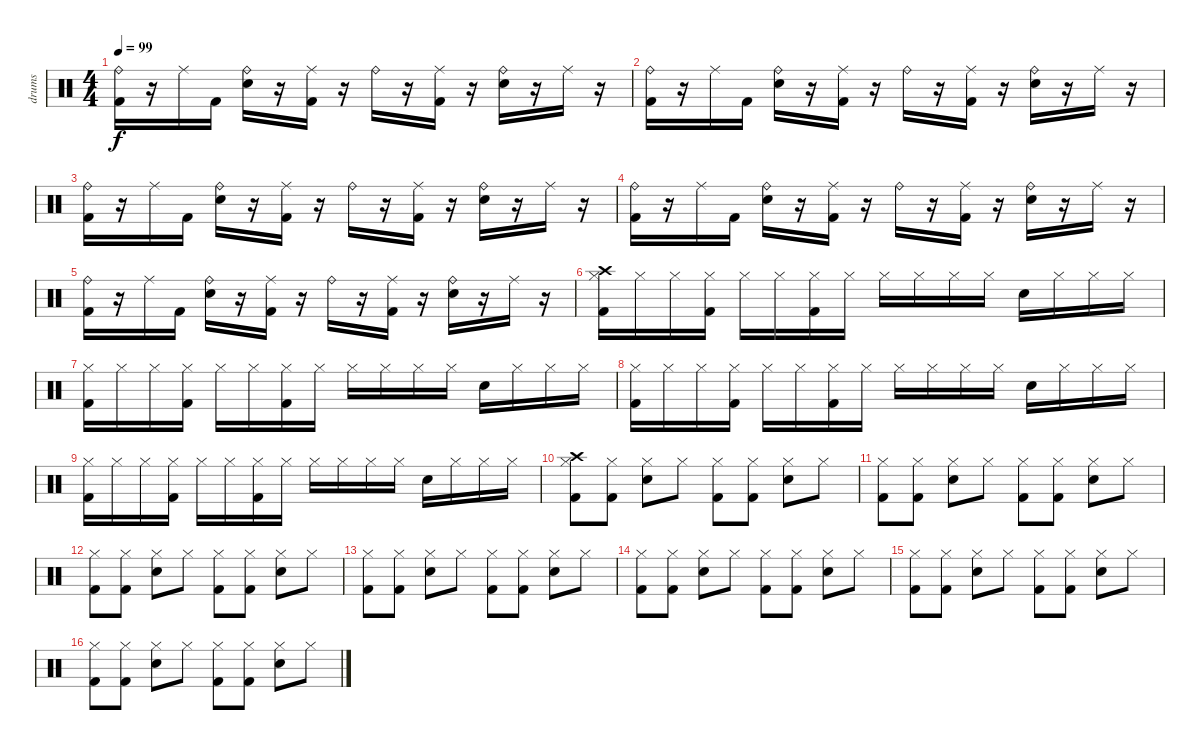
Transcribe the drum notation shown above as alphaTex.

\track ("drums" "drums") {instrument percussion}
\staff {score}
\articulation defaults
\ts (4 4)
\tempo 99
\clef neutral
\ks c
("Ride (bell)" "Kick (hit) 2").16{dy f} r.16 "Ride (middle)".16 "Kick (hit) 2".16 ("Ride (bell)" "Snare (hit) 2").16 r.16 ("Ride (middle)" "Kick (hit) 2").16 r.16 "Ride (bell)"{nh}.16 r.16 ("Ride (middle)" "Kick (hit) 2").16 r.16 ("Ride (bell)" "Snare (hit) 2").16 r.16 "Ride (middle)".16 r.16 |
("Ride (bell)" "Kick (hit) 2").16 r.16 "Ride (middle)".16 "Kick (hit) 2".16 ("Ride (bell)" "Snare (hit) 2").16 r.16 ("Ride (middle)" "Kick (hit) 2").16 r.16 "Ride (bell)"{nh}.16 r.16 ("Ride (middle)" "Kick (hit) 2").16 r.16 ("Ride (bell)" "Snare (hit) 2").16 r.16 "Ride (middle)".16 r.16 |
("Ride (bell)" "Kick (hit) 2").16 r.16 "Ride (middle)".16 "Kick (hit) 2".16 ("Ride (bell)" "Snare (hit) 2").16 r.16 ("Ride (middle)" "Kick (hit) 2").16 r.16 "Ride (bell)"{nh}.16 r.16 ("Ride (middle)" "Kick (hit) 2").16 r.16 ("Ride (bell)" "Snare (hit) 2").16 r.16 "Ride (middle)".16 r.16 |
("Ride (bell)" "Kick (hit) 2").16 r.16 "Ride (middle)".16 "Kick (hit) 2".16 ("Ride (bell)" "Snare (hit) 2").16 r.16 ("Ride (middle)" "Kick (hit) 2").16 r.16 "Ride (bell)"{nh}.16 r.16 ("Ride (middle)" "Kick (hit) 2").16 r.16 ("Ride (bell)" "Snare (hit) 2").16 r.16 "Ride (middle)".16 r.16 |
("Ride (bell)" "Kick (hit) 2").16 r.16 "Ride (middle)".16 "Kick (hit) 2".16 ("Ride (bell)" "Snare (hit) 2").16 r.16 ("Ride (middle)" "Kick (hit) 2").16 r.16 "Ride (bell)"{nh}.16 r.16 ("Ride (middle)" "Kick (hit) 2").16 r.16 ("Ride (bell)" "Snare (hit) 2").16 r.16 "Ride (middle)".16 r.16 |
("Crash high (hit)" "Hi-Hat (closed)" "Kick (hit) 2").16 "Hi-Hat (closed)".16 "Hi-Hat (closed)".16 ("Hi-Hat (closed)" "Kick (hit) 2").16 "Hi-Hat (closed)".16 "Hi-Hat (closed)".16 ("Hi-Hat (closed)" "Kick (hit) 2").16 "Hi-Hat (closed)".16 "Hi-Hat (closed)"{nh}.16 "Hi-Hat (closed)".16 "Hi-Hat (closed)".16 "Hi-Hat (closed)".16 "Snare (hit) 2".16 "Hi-Hat (closed)".16 "Hi-Hat (closed)".16 "Hi-Hat (closed)".16 |
("Hi-Hat (closed)" "Kick (hit) 2").16 "Hi-Hat (closed)".16 "Hi-Hat (closed)".16 ("Hi-Hat (closed)" "Kick (hit) 2").16 "Hi-Hat (closed)".16 "Hi-Hat (closed)".16 ("Hi-Hat (closed)" "Kick (hit) 2").16 "Hi-Hat (closed)".16 "Hi-Hat (closed)"{nh}.16 "Hi-Hat (closed)".16 "Hi-Hat (closed)".16 "Hi-Hat (closed)".16 "Snare (hit) 2".16 "Hi-Hat (closed)".16 "Hi-Hat (closed)".16 "Hi-Hat (closed)".16 |
("Hi-Hat (closed)" "Kick (hit) 2").16 "Hi-Hat (closed)".16 "Hi-Hat (closed)".16 ("Hi-Hat (closed)" "Kick (hit) 2").16 "Hi-Hat (closed)".16 "Hi-Hat (closed)".16 ("Hi-Hat (closed)" "Kick (hit) 2").16 "Hi-Hat (closed)".16 "Hi-Hat (closed)"{nh}.16 "Hi-Hat (closed)".16 "Hi-Hat (closed)".16 "Hi-Hat (closed)".16 "Snare (hit) 2".16 "Hi-Hat (closed)".16 "Hi-Hat (closed)".16 "Hi-Hat (closed)".16 |
("Hi-Hat (closed)" "Kick (hit) 2").16 "Hi-Hat (closed)".16 "Hi-Hat (closed)".16 ("Hi-Hat (closed)" "Kick (hit) 2").16 "Hi-Hat (closed)".16 "Hi-Hat (closed)".16 ("Hi-Hat (closed)" "Kick (hit) 2").16 "Hi-Hat (closed)".16 "Hi-Hat (closed)"{nh}.16 "Hi-Hat (closed)".16 "Hi-Hat (closed)".16 "Hi-Hat (closed)".16 "Snare (hit) 2".16 "Hi-Hat (closed)".16 "Hi-Hat (closed)".16 "Hi-Hat (closed)".16 |
("Crash high (hit)" "Hi-Hat (closed)" "Kick (hit) 2").8 ("Hi-Hat (closed)" "Kick (hit) 2").8 ("Hi-Hat (closed)" "Snare (hit) 2").8 "Hi-Hat (closed)".8 ("Hi-Hat (closed)" "Kick (hit) 2").8 ("Hi-Hat (closed)" "Kick (hit) 2").8 ("Hi-Hat (closed)" "Snare (hit) 2").8 "Hi-Hat (closed)".8 |
("Hi-Hat (closed)" "Kick (hit) 2").8 ("Hi-Hat (closed)" "Kick (hit) 2").8 ("Hi-Hat (closed)" "Snare (hit) 2").8 "Hi-Hat (closed)".8 ("Hi-Hat (closed)" "Kick (hit) 2").8 ("Hi-Hat (closed)" "Kick (hit) 2").8 ("Hi-Hat (closed)" "Snare (hit) 2").8 "Hi-Hat (closed)".8 |
("Hi-Hat (closed)" "Kick (hit) 2").8 ("Hi-Hat (closed)" "Kick (hit) 2").8 ("Hi-Hat (closed)" "Snare (hit) 2").8 "Hi-Hat (closed)".8 ("Hi-Hat (closed)" "Kick (hit) 2").8 ("Hi-Hat (closed)" "Kick (hit) 2").8 ("Hi-Hat (closed)" "Snare (hit) 2").8 "Hi-Hat (closed)".8 |
("Hi-Hat (closed)" "Kick (hit) 2").8 ("Hi-Hat (closed)" "Kick (hit) 2").8 ("Hi-Hat (closed)" "Snare (hit) 2").8 "Hi-Hat (closed)".8 ("Hi-Hat (closed)" "Kick (hit) 2").8 ("Hi-Hat (closed)" "Kick (hit) 2").8 ("Hi-Hat (closed)" "Snare (hit) 2").8 "Hi-Hat (closed)".8 |
("Hi-Hat (closed)" "Kick (hit) 2").8 ("Hi-Hat (closed)" "Kick (hit) 2").8 ("Hi-Hat (closed)" "Snare (hit) 2").8 "Hi-Hat (closed)".8 ("Hi-Hat (closed)" "Kick (hit) 2").8 ("Hi-Hat (closed)" "Kick (hit) 2").8 ("Hi-Hat (closed)" "Snare (hit) 2").8 "Hi-Hat (closed)".8 |
("Hi-Hat (closed)" "Kick (hit) 2").8 ("Hi-Hat (closed)" "Kick (hit) 2").8 ("Hi-Hat (closed)" "Snare (hit) 2").8 "Hi-Hat (closed)".8 ("Hi-Hat (closed)" "Kick (hit) 2").8 ("Hi-Hat (closed)" "Kick (hit) 2").8 ("Hi-Hat (closed)" "Snare (hit) 2").8 "Hi-Hat (closed)".8 |
("Hi-Hat (closed)" "Kick (hit) 2").8 ("Hi-Hat (closed)" "Kick (hit) 2").8 ("Hi-Hat (closed)" "Snare (hit) 2").8 "Hi-Hat (closed)".8 ("Hi-Hat (closed)" "Kick (hit) 2").8 ("Hi-Hat (closed)" "Kick (hit) 2").8 ("Hi-Hat (closed)" "Snare (hit) 2").8 "Hi-Hat (closed)".8
